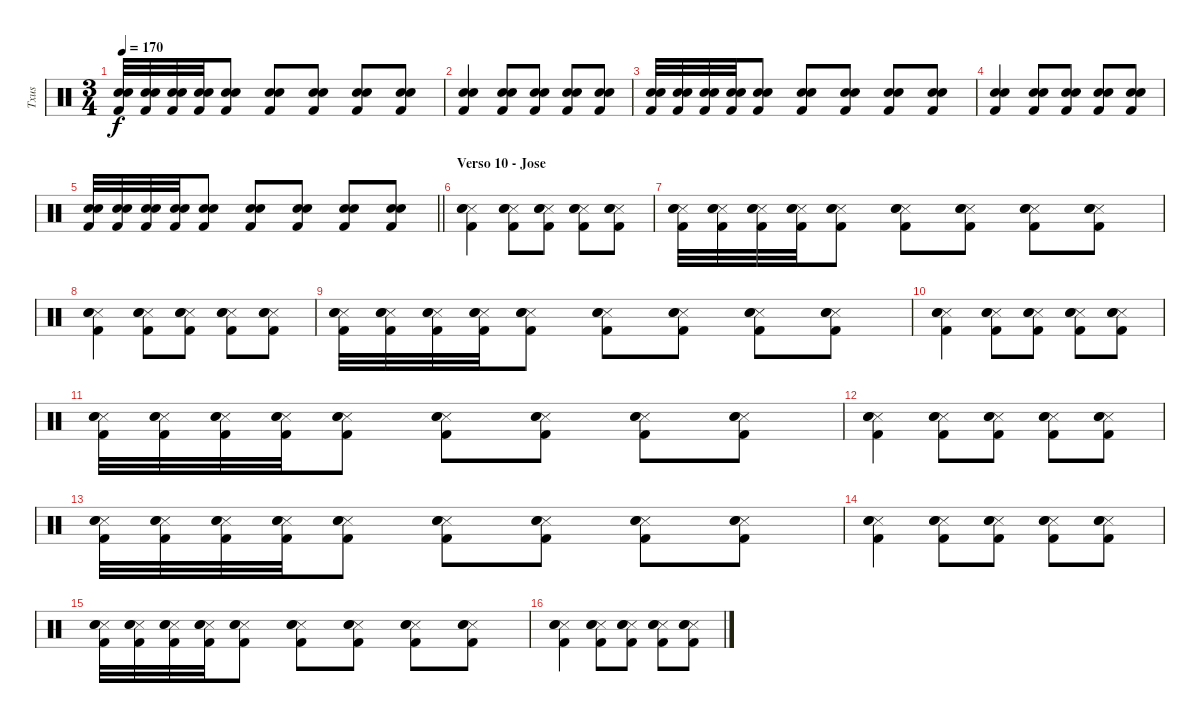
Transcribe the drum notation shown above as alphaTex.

\track ("Txus" "Txus") {instrument percussion}
\staff {score}
\articulation defaults
\ts (3 4)
\tempo 170
\clef neutral
\ks c
("Snare (hit) 2" "Hand Clap (hit)" "Kick (hit) 2").32{dy f} ("Snare (hit) 2" "Hand Clap (hit)" "Kick (hit) 2").32 ("Snare (hit) 2" "Hand Clap (hit)" "Kick (hit) 2").32 ("Snare (hit) 2" "Hand Clap (hit)" "Kick (hit) 2").32 ("Snare (hit) 2" "Hand Clap (hit)" "Kick (hit) 2").8 ("Snare (hit) 2" "Hand Clap (hit)" "Kick (hit) 2").8 ("Snare (hit) 2" "Hand Clap (hit)" "Kick (hit) 2").8 ("Snare (hit) 2" "Hand Clap (hit)" "Kick (hit) 2").8 ("Snare (hit) 2" "Hand Clap (hit)" "Kick (hit) 2").8 |
("Snare (hit) 2" "Hand Clap (hit)" "Kick (hit) 2").4 ("Snare (hit) 2" "Hand Clap (hit)" "Kick (hit) 2").8 ("Snare (hit) 2" "Hand Clap (hit)" "Kick (hit) 2").8 ("Snare (hit) 2" "Hand Clap (hit)" "Kick (hit) 2").8 ("Snare (hit) 2" "Hand Clap (hit)" "Kick (hit) 2").8 |
("Snare (hit) 2" "Hand Clap (hit)" "Kick (hit) 2").32 ("Snare (hit) 2" "Hand Clap (hit)" "Kick (hit) 2").32 ("Snare (hit) 2" "Hand Clap (hit)" "Kick (hit) 2").32 ("Snare (hit) 2" "Hand Clap (hit)" "Kick (hit) 2").32 ("Snare (hit) 2" "Hand Clap (hit)" "Kick (hit) 2").8 ("Snare (hit) 2" "Hand Clap (hit)" "Kick (hit) 2").8 ("Snare (hit) 2" "Hand Clap (hit)" "Kick (hit) 2").8 ("Snare (hit) 2" "Hand Clap (hit)" "Kick (hit) 2").8 ("Snare (hit) 2" "Hand Clap (hit)" "Kick (hit) 2").8 |
("Snare (hit) 2" "Hand Clap (hit)" "Kick (hit) 2").4 ("Snare (hit) 2" "Hand Clap (hit)" "Kick (hit) 2").8 ("Snare (hit) 2" "Hand Clap (hit)" "Kick (hit) 2").8 ("Snare (hit) 2" "Hand Clap (hit)" "Kick (hit) 2").8 ("Snare (hit) 2" "Hand Clap (hit)" "Kick (hit) 2").8 |
\barLineRight lightlight
("Snare (hit) 2" "Hand Clap (hit)" "Kick (hit) 2").32 ("Snare (hit) 2" "Hand Clap (hit)" "Kick (hit) 2").32 ("Snare (hit) 2" "Hand Clap (hit)" "Kick (hit) 2").32 ("Snare (hit) 2" "Hand Clap (hit)" "Kick (hit) 2").32 ("Snare (hit) 2" "Hand Clap (hit)" "Kick (hit) 2").8 ("Snare (hit) 2" "Hand Clap (hit)" "Kick (hit) 2").8 ("Snare (hit) 2" "Hand Clap (hit)" "Kick (hit) 2").8 ("Snare (hit) 2" "Hand Clap (hit)" "Kick (hit) 2").8 ("Snare (hit) 2" "Hand Clap (hit)" "Kick (hit) 2").8 |
\section ("" "Verso 10 - Jose")
("Metronome (hit)" "Snare (hit) 2" "Hand Clap (hit)" "Kick (hit) 2").4 ("Metronome (hit)" "Snare (hit) 2" "Hand Clap (hit)" "Kick (hit) 2").8 ("Metronome (hit)" "Snare (hit) 2" "Hand Clap (hit)" "Kick (hit) 2").8 ("Metronome (hit)" "Snare (hit) 2" "Hand Clap (hit)" "Kick (hit) 2").8 ("Metronome (hit)" "Snare (hit) 2" "Hand Clap (hit)" "Kick (hit) 2").8 |
("Metronome (hit)" "Snare (hit) 2" "Hand Clap (hit)" "Kick (hit) 2").32 ("Metronome (hit)" "Snare (hit) 2" "Hand Clap (hit)" "Kick (hit) 2").32 ("Metronome (hit)" "Snare (hit) 2" "Hand Clap (hit)" "Kick (hit) 2").32 ("Metronome (hit)" "Snare (hit) 2" "Hand Clap (hit)" "Kick (hit) 2").32 ("Metronome (hit)" "Snare (hit) 2" "Hand Clap (hit)" "Kick (hit) 2").8 ("Metronome (hit)" "Snare (hit) 2" "Hand Clap (hit)" "Kick (hit) 2").8 ("Metronome (hit)" "Snare (hit) 2" "Hand Clap (hit)" "Kick (hit) 2").8 ("Metronome (hit)" "Snare (hit) 2" "Hand Clap (hit)" "Kick (hit) 2").8 ("Metronome (hit)" "Snare (hit) 2" "Hand Clap (hit)" "Kick (hit) 2").8 |
("Metronome (hit)" "Snare (hit) 2" "Hand Clap (hit)" "Kick (hit) 2").4 ("Metronome (hit)" "Snare (hit) 2" "Hand Clap (hit)" "Kick (hit) 2").8 ("Metronome (hit)" "Snare (hit) 2" "Hand Clap (hit)" "Kick (hit) 2").8 ("Metronome (hit)" "Snare (hit) 2" "Hand Clap (hit)" "Kick (hit) 2").8 ("Metronome (hit)" "Snare (hit) 2" "Hand Clap (hit)" "Kick (hit) 2").8 |
("Metronome (hit)" "Snare (hit) 2" "Hand Clap (hit)" "Kick (hit) 2").32 ("Metronome (hit)" "Snare (hit) 2" "Hand Clap (hit)" "Kick (hit) 2").32 ("Metronome (hit)" "Snare (hit) 2" "Hand Clap (hit)" "Kick (hit) 2").32 ("Metronome (hit)" "Snare (hit) 2" "Hand Clap (hit)" "Kick (hit) 2").32 ("Metronome (hit)" "Snare (hit) 2" "Hand Clap (hit)" "Kick (hit) 2").8 ("Metronome (hit)" "Snare (hit) 2" "Hand Clap (hit)" "Kick (hit) 2").8 ("Metronome (hit)" "Snare (hit) 2" "Hand Clap (hit)" "Kick (hit) 2").8 ("Metronome (hit)" "Snare (hit) 2" "Hand Clap (hit)" "Kick (hit) 2").8 ("Metronome (hit)" "Snare (hit) 2" "Hand Clap (hit)" "Kick (hit) 2").8 |
("Metronome (hit)" "Snare (hit) 2" "Hand Clap (hit)" "Kick (hit) 2").4 ("Metronome (hit)" "Snare (hit) 2" "Hand Clap (hit)" "Kick (hit) 2").8 ("Metronome (hit)" "Snare (hit) 2" "Hand Clap (hit)" "Kick (hit) 2").8 ("Metronome (hit)" "Snare (hit) 2" "Hand Clap (hit)" "Kick (hit) 2").8 ("Metronome (hit)" "Snare (hit) 2" "Hand Clap (hit)" "Kick (hit) 2").8 |
("Metronome (hit)" "Snare (hit) 2" "Hand Clap (hit)" "Kick (hit) 2").32 ("Metronome (hit)" "Snare (hit) 2" "Hand Clap (hit)" "Kick (hit) 2").32 ("Metronome (hit)" "Snare (hit) 2" "Hand Clap (hit)" "Kick (hit) 2").32 ("Metronome (hit)" "Snare (hit) 2" "Hand Clap (hit)" "Kick (hit) 2").32 ("Metronome (hit)" "Snare (hit) 2" "Hand Clap (hit)" "Kick (hit) 2").8 ("Metronome (hit)" "Snare (hit) 2" "Hand Clap (hit)" "Kick (hit) 2").8 ("Metronome (hit)" "Snare (hit) 2" "Hand Clap (hit)" "Kick (hit) 2").8 ("Metronome (hit)" "Snare (hit) 2" "Hand Clap (hit)" "Kick (hit) 2").8 ("Metronome (hit)" "Snare (hit) 2" "Hand Clap (hit)" "Kick (hit) 2").8 |
("Metronome (hit)" "Snare (hit) 2" "Hand Clap (hit)" "Kick (hit) 2").4 ("Metronome (hit)" "Snare (hit) 2" "Hand Clap (hit)" "Kick (hit) 2").8 ("Metronome (hit)" "Snare (hit) 2" "Hand Clap (hit)" "Kick (hit) 2").8 ("Metronome (hit)" "Snare (hit) 2" "Hand Clap (hit)" "Kick (hit) 2").8 ("Metronome (hit)" "Snare (hit) 2" "Hand Clap (hit)" "Kick (hit) 2").8 |
("Metronome (hit)" "Snare (hit) 2" "Hand Clap (hit)" "Kick (hit) 2").32 ("Metronome (hit)" "Snare (hit) 2" "Hand Clap (hit)" "Kick (hit) 2").32 ("Metronome (hit)" "Snare (hit) 2" "Hand Clap (hit)" "Kick (hit) 2").32 ("Metronome (hit)" "Snare (hit) 2" "Hand Clap (hit)" "Kick (hit) 2").32 ("Metronome (hit)" "Snare (hit) 2" "Hand Clap (hit)" "Kick (hit) 2").8 ("Metronome (hit)" "Snare (hit) 2" "Hand Clap (hit)" "Kick (hit) 2").8 ("Metronome (hit)" "Snare (hit) 2" "Hand Clap (hit)" "Kick (hit) 2").8 ("Metronome (hit)" "Snare (hit) 2" "Hand Clap (hit)" "Kick (hit) 2").8 ("Metronome (hit)" "Snare (hit) 2" "Hand Clap (hit)" "Kick (hit) 2").8 |
("Metronome (hit)" "Snare (hit) 2" "Hand Clap (hit)" "Kick (hit) 2").4 ("Metronome (hit)" "Snare (hit) 2" "Hand Clap (hit)" "Kick (hit) 2").8 ("Metronome (hit)" "Snare (hit) 2" "Hand Clap (hit)" "Kick (hit) 2").8 ("Metronome (hit)" "Snare (hit) 2" "Hand Clap (hit)" "Kick (hit) 2").8 ("Metronome (hit)" "Snare (hit) 2" "Hand Clap (hit)" "Kick (hit) 2").8 |
("Metronome (hit)" "Snare (hit) 2" "Hand Clap (hit)" "Kick (hit) 2").32 ("Metronome (hit)" "Snare (hit) 2" "Hand Clap (hit)" "Kick (hit) 2").32 ("Metronome (hit)" "Snare (hit) 2" "Hand Clap (hit)" "Kick (hit) 2").32 ("Metronome (hit)" "Snare (hit) 2" "Hand Clap (hit)" "Kick (hit) 2").32 ("Metronome (hit)" "Snare (hit) 2" "Hand Clap (hit)" "Kick (hit) 2").8 ("Metronome (hit)" "Snare (hit) 2" "Hand Clap (hit)" "Kick (hit) 2").8 ("Metronome (hit)" "Snare (hit) 2" "Hand Clap (hit)" "Kick (hit) 2").8 ("Metronome (hit)" "Snare (hit) 2" "Hand Clap (hit)" "Kick (hit) 2").8 ("Metronome (hit)" "Snare (hit) 2" "Hand Clap (hit)" "Kick (hit) 2").8 |
("Metronome (hit)" "Snare (hit) 2" "Hand Clap (hit)" "Kick (hit) 2").4 ("Metronome (hit)" "Snare (hit) 2" "Hand Clap (hit)" "Kick (hit) 2").8 ("Metronome (hit)" "Snare (hit) 2" "Hand Clap (hit)" "Kick (hit) 2").8 ("Metronome (hit)" "Snare (hit) 2" "Hand Clap (hit)" "Kick (hit) 2").8 ("Metronome (hit)" "Snare (hit) 2" "Hand Clap (hit)" "Kick (hit) 2").8
